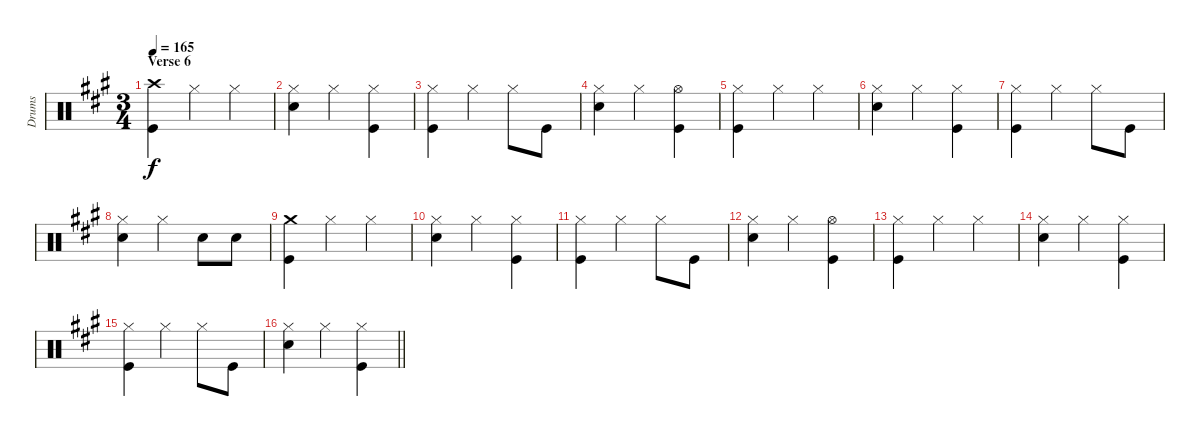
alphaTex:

\track ("Drums" "Drums") {instrument percussion}
\staff {score}
\articulation defaults
\ts (3 4)
\section ("" "Verse 6")
\tempo 165
\clef neutral
\ks a
("Crash high (hit)" "Kick (hit)").4{dy f} "Hi-Hat (closed)".4 "Hi-Hat (closed)".4 |
("Hi-Hat (closed)" "Snare (hit) 2").4 "Hi-Hat (closed)".4 ("Hi-Hat (closed)" "Kick (hit)").4 |
("Hi-Hat (closed)" "Kick (hit)").4 "Hi-Hat (closed)".4 "Hi-Hat (closed)".8 "Kick (hit)".8 |
("Hi-Hat (closed)" "Snare (hit) 2").4 "Hi-Hat (closed)".4 ("Hi-Hat (open)" "Kick (hit)").4 |
("Hi-Hat (closed)" "Kick (hit)").4 "Hi-Hat (closed)".4 "Hi-Hat (closed)".4 |
("Hi-Hat (closed)" "Snare (hit) 2").4 "Hi-Hat (closed)".4 ("Hi-Hat (closed)" "Kick (hit)").4 |
("Hi-Hat (closed)" "Kick (hit)").4 "Hi-Hat (closed)".4 "Hi-Hat (closed)".8 "Kick (hit)".8 |
("Hi-Hat (closed)" "Snare (hit) 2").4 "Hi-Hat (closed)".4 "Snare (hit) 2".8 "Snare (hit) 2".8 |
("Crash medium (hit)" "Kick (hit)").4 "Hi-Hat (closed)".4 "Hi-Hat (closed)".4 |
("Hi-Hat (closed)" "Snare (hit) 2").4 "Hi-Hat (closed)".4 ("Hi-Hat (closed)" "Kick (hit)").4 |
("Hi-Hat (closed)" "Kick (hit)").4 "Hi-Hat (closed)".4 "Hi-Hat (closed)".8 "Kick (hit)".8 |
("Hi-Hat (closed)" "Snare (hit) 2").4 "Hi-Hat (closed)".4 ("Hi-Hat (open)" "Kick (hit)").4 |
("Hi-Hat (closed)" "Kick (hit)").4 "Hi-Hat (closed)".4 "Hi-Hat (closed)".4 |
("Hi-Hat (closed)" "Snare (hit) 2").4 "Hi-Hat (closed)".4 ("Hi-Hat (closed)" "Kick (hit)").4 |
("Hi-Hat (closed)" "Kick (hit)").4 "Hi-Hat (closed)".4 "Hi-Hat (closed)".8 "Kick (hit)".8 |
\barLineRight lightlight
("Hi-Hat (closed)" "Snare (hit) 2").4 "Hi-Hat (closed)".4 ("Hi-Hat (closed)" "Kick (hit)").4
